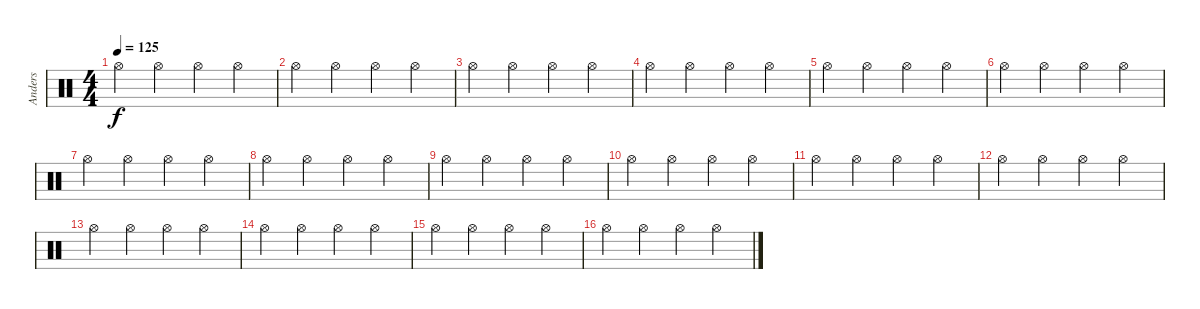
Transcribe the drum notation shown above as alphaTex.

\track ("Anders" "Anders") {instrument percussion}
\staff {score}
\articulation defaults
\ts (4 4)
\tempo 125
\clef neutral
\ks c "Hi-Hat (open)".4{dy f} "Hi-Hat (open)".4 "Hi-Hat (open)".4 "Hi-Hat (open)".4
|
"Hi-Hat (open)".4 "Hi-Hat (open)".4 "Hi-Hat (open)".4 "Hi-Hat (open)".4 |
"Hi-Hat (open)".4 "Hi-Hat (open)".4 "Hi-Hat (open)".4 "Hi-Hat (open)".4 |
"Hi-Hat (open)".4 "Hi-Hat (open)".4 "Hi-Hat (open)".4 "Hi-Hat (open)".4 |
"Hi-Hat (open)".4 "Hi-Hat (open)".4 "Hi-Hat (open)".4 "Hi-Hat (open)".4 |
"Hi-Hat (open)".4 "Hi-Hat (open)".4 "Hi-Hat (open)".4 "Hi-Hat (open)".4 |
"Hi-Hat (open)".4 "Hi-Hat (open)".4 "Hi-Hat (open)".4 "Hi-Hat (open)".4 |
"Hi-Hat (open)".4 "Hi-Hat (open)".4 "Hi-Hat (open)".4 "Hi-Hat (open)".4 |
"Hi-Hat (open)".4 "Hi-Hat (open)".4 "Hi-Hat (open)".4 "Hi-Hat (open)".4 |
"Hi-Hat (open)".4 "Hi-Hat (open)".4 "Hi-Hat (open)".4 "Hi-Hat (open)".4 |
"Hi-Hat (open)".4 "Hi-Hat (open)".4 "Hi-Hat (open)".4 "Hi-Hat (open)".4 |
"Hi-Hat (open)".4 "Hi-Hat (open)".4 "Hi-Hat (open)".4 "Hi-Hat (open)".4 |
"Hi-Hat (open)".4 "Hi-Hat (open)".4 "Hi-Hat (open)".4 "Hi-Hat (open)".4 |
"Hi-Hat (open)".4 "Hi-Hat (open)".4 "Hi-Hat (open)".4 "Hi-Hat (open)".4 |
"Hi-Hat (open)".4 "Hi-Hat (open)".4 "Hi-Hat (open)".4 "Hi-Hat (open)".4 |
"Hi-Hat (open)".4 "Hi-Hat (open)".4 "Hi-Hat (open)".4 "Hi-Hat (open)".4
